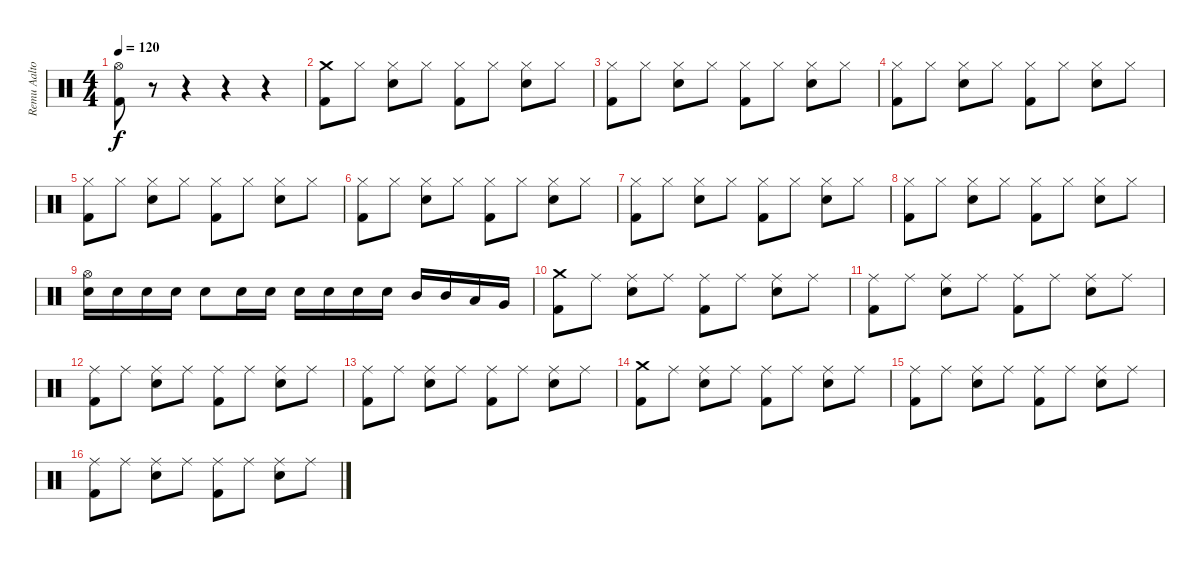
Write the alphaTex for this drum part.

\track ("Remu Aaltonen" "Remu Aalto") {instrument percussion}
\staff {score}
\articulation defaults
\ts (4 4)
\tempo 120
\clef neutral
\ks c
("Hi-Hat (open)" "Kick (hit) 2").8{dy f} r.8 r.4 r.4 r.4 |
("Crash medium (hit)" "Kick (hit) 2").8 "Hi-Hat (closed)".8 ("Hi-Hat (closed)" "Snare (hit) 2").8 "Hi-Hat (closed)".8 ("Hi-Hat (closed)" "Kick (hit) 2").8 "Hi-Hat (closed)".8 ("Hi-Hat (closed)" "Snare (hit) 2").8 "Hi-Hat (closed)".8 |
("Hi-Hat (closed)" "Kick (hit) 2").8 "Hi-Hat (closed)".8 ("Hi-Hat (closed)" "Snare (hit) 2").8 "Hi-Hat (closed)".8 ("Hi-Hat (closed)" "Kick (hit) 2").8 "Hi-Hat (closed)".8 ("Hi-Hat (closed)" "Snare (hit) 2").8 "Hi-Hat (closed)".8 |
("Hi-Hat (closed)" "Kick (hit) 2").8 "Hi-Hat (closed)".8 ("Hi-Hat (closed)" "Snare (hit) 2").8 "Hi-Hat (closed)".8 ("Hi-Hat (closed)" "Kick (hit) 2").8 "Hi-Hat (closed)".8 ("Hi-Hat (closed)" "Snare (hit) 2").8 "Hi-Hat (closed)".8 |
("Hi-Hat (closed)" "Kick (hit) 2").8 "Hi-Hat (closed)".8 ("Hi-Hat (closed)" "Snare (hit) 2").8 "Hi-Hat (closed)".8 ("Hi-Hat (closed)" "Kick (hit) 2").8 "Hi-Hat (closed)".8 ("Hi-Hat (closed)" "Snare (hit) 2").8 "Hi-Hat (closed)".8 |
("Hi-Hat (closed)" "Kick (hit) 2").8 "Hi-Hat (closed)".8 ("Hi-Hat (closed)" "Snare (hit) 2").8 "Hi-Hat (closed)".8 ("Hi-Hat (closed)" "Kick (hit) 2").8 "Hi-Hat (closed)".8 ("Hi-Hat (closed)" "Snare (hit) 2").8 "Hi-Hat (closed)".8 |
("Hi-Hat (closed)" "Kick (hit) 2").8 "Hi-Hat (closed)".8 ("Hi-Hat (closed)" "Snare (hit) 2").8 "Hi-Hat (closed)".8 ("Hi-Hat (closed)" "Kick (hit) 2").8 "Hi-Hat (closed)".8 ("Hi-Hat (closed)" "Snare (hit) 2").8 "Hi-Hat (closed)".8 |
("Hi-Hat (closed)" "Kick (hit) 2").8 "Hi-Hat (closed)".8 ("Hi-Hat (closed)" "Snare (hit) 2").8 "Hi-Hat (closed)".8 ("Hi-Hat (closed)" "Kick (hit) 2").8 "Hi-Hat (closed)".8 ("Hi-Hat (closed)" "Snare (hit) 2").8 "Hi-Hat (closed)".8 |
("Hi-Hat (open)" "Snare (hit) 2").16 "Snare (hit) 2".16 "Snare (hit) 2".16 "Snare (hit) 2".16 "Snare (hit) 2".8 "Snare (hit) 2".16 "Snare (hit) 2".16 "Snare (hit) 2".16 "Snare (hit) 2".16 "Snare (hit) 2".16 "Snare (hit) 2".16 "Mid Tom (hit)".16 "Mid Tom (hit)".16 "Low Tom (hit)".16 "Very Low Tom (hit)".16 |
("Crash medium (hit)" "Kick (hit) 2").8 "Ride (middle)".8 ("Ride (middle)" "Snare (hit) 2").8 "Ride (middle)".8 ("Ride (middle)" "Kick (hit) 2").8 "Ride (middle)".8 ("Ride (middle)" "Snare (hit) 2").8 "Ride (middle)".8 |
("Ride (middle)" "Kick (hit) 2").8 "Ride (middle)".8 ("Ride (middle)" "Snare (hit) 2").8 "Ride (middle)".8 ("Ride (middle)" "Kick (hit) 2").8 "Ride (middle)".8 ("Ride (middle)" "Snare (hit) 2").8 "Ride (middle)".8 |
("Ride (middle)" "Kick (hit) 2").8 "Ride (middle)".8 ("Ride (middle)" "Snare (hit) 2").8 "Ride (middle)".8 ("Ride (middle)" "Kick (hit) 2").8 "Ride (middle)".8 ("Ride (middle)" "Snare (hit) 2").8 "Ride (middle)".8 |
("Ride (middle)" "Kick (hit) 2").8 "Ride (middle)".8 ("Ride (middle)" "Snare (hit) 2").8 "Ride (middle)".8 ("Ride (middle)" "Kick (hit) 2").8 "Ride (middle)".8 ("Ride (middle)" "Snare (hit) 2").8 "Ride (middle)".8 |
("Crash medium (hit)" "Kick (hit) 2").8 "Ride (middle)".8 ("Ride (middle)" "Snare (hit) 2").8 "Ride (middle)".8 ("Ride (middle)" "Kick (hit) 2").8 "Ride (middle)".8 ("Ride (middle)" "Snare (hit) 2").8 "Ride (middle)".8 |
("Ride (middle)" "Kick (hit) 2").8 "Ride (middle)".8 ("Ride (middle)" "Snare (hit) 2").8 "Ride (middle)".8 ("Ride (middle)" "Kick (hit) 2").8 "Ride (middle)".8 ("Ride (middle)" "Snare (hit) 2").8 "Ride (middle)".8 |
("Ride (middle)" "Kick (hit) 2").8 "Ride (middle)".8 ("Ride (middle)" "Snare (hit) 2").8 "Ride (middle)".8 ("Ride (middle)" "Kick (hit) 2").8 "Ride (middle)".8 ("Ride (middle)" "Snare (hit) 2").8 "Ride (middle)".8
